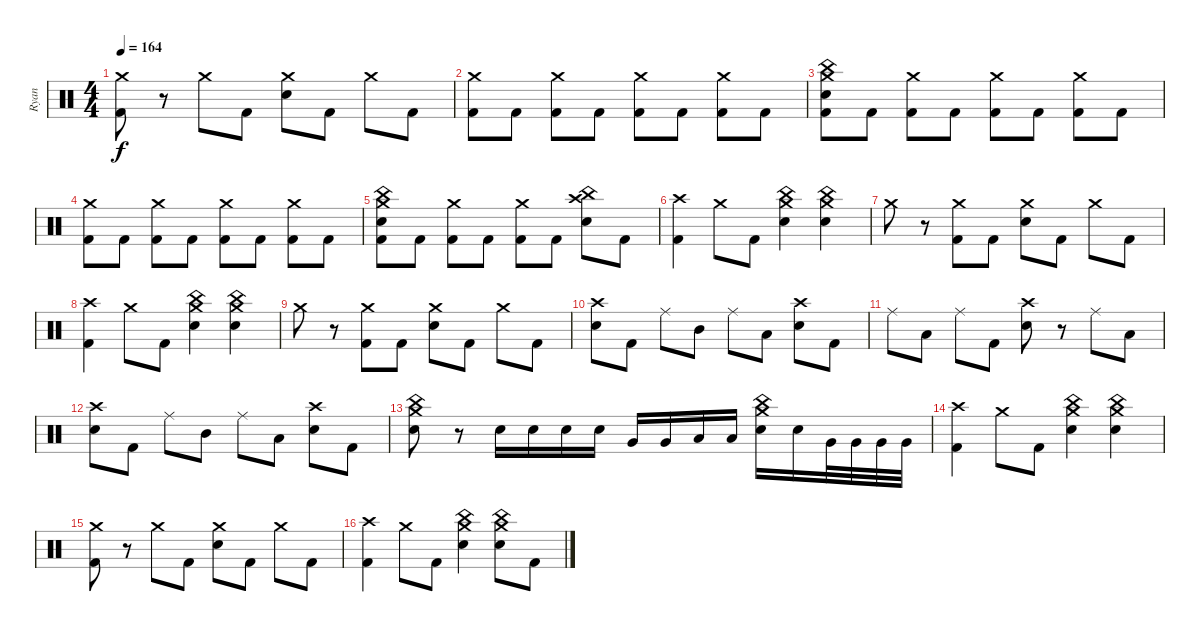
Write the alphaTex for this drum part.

\track ("Ryan" "Ryan") {instrument percussion}
\staff {score}
\articulation defaults
\ts (4 4)
\tempo 164
\clef neutral
\ks c
("Crash medium (hit)" "Kick (hit) 2").8{dy f} r.8 "Crash medium (hit)".8 "Kick (hit) 2".8 ("Crash medium (hit)" "Electric Snare (hit)").8 "Kick (hit) 2".8 "Crash medium (hit)".8 "Kick (hit) 2".8 |
("Crash medium (hit)" "Kick (hit) 2").8 "Kick (hit) 2".8 ("Crash medium (hit)" "Kick (hit) 2").8 "Kick (hit) 2".8 ("Crash medium (hit)" "Kick (hit) 2").8 "Kick (hit) 2".8 ("Crash medium (hit)" "Kick (hit) 2").8 "Kick (hit) 2".8 |
("Crash medium (hit)" "China (hit)" "Electric Snare (hit)" "Kick (hit) 2").8 "Kick (hit) 2".8 ("Crash medium (hit)" "Kick (hit) 2").8 "Kick (hit) 2".8 ("Crash medium (hit)" "Kick (hit) 2").8 "Kick (hit) 2".8 ("Crash medium (hit)" "Kick (hit) 2").8 "Kick (hit) 2".8 |
("Crash medium (hit)" "Kick (hit) 2").8 "Kick (hit) 2".8 ("Crash medium (hit)" "Kick (hit) 2").8 "Kick (hit) 2".8 ("Crash medium (hit)" "Kick (hit) 2").8 "Kick (hit) 2".8 ("Crash medium (hit)" "Kick (hit) 2").8 "Kick (hit) 2".8 |
("Crash medium (hit)" "China (hit)" "Electric Snare (hit)" "Kick (hit) 2").8 "Kick (hit) 2".8 ("Crash medium (hit)" "Kick (hit) 2").8 "Kick (hit) 2".8 ("Crash medium (hit)" "Kick (hit) 2").8 "Kick (hit) 2".8 ("Crash high (hit)" "China (hit)" "Electric Snare (hit)").8 "Kick (hit) 2".8 |
("Crash high (hit)" "Kick (hit) 2").4 "Crash medium (hit)".8 "Kick (hit) 2".8 ("Crash medium (hit)" "China (hit)" "Electric Snare (hit)").4 ("Crash medium (hit)" "China (hit)" "Electric Snare (hit)").4 |
"Crash medium (hit)".8 r.8 ("Crash medium (hit)" "Kick (hit) 2").8 "Kick (hit) 2".8 ("Crash medium (hit)" "Electric Snare (hit)").8 "Kick (hit) 2".8 "Crash medium (hit)".8 "Kick (hit) 2".8 |
("Crash high (hit)" "Kick (hit) 2").4 "Crash medium (hit)".8 "Kick (hit) 2".8 ("Crash medium (hit)" "China (hit)" "Electric Snare (hit)").4 ("Crash medium (hit)" "China (hit)" "Electric Snare (hit)").4 |
"Crash medium (hit)".8 r.8 ("Crash medium (hit)" "Kick (hit) 2").8 "Kick (hit) 2".8 ("Crash medium (hit)" "Electric Snare (hit)").8 "Kick (hit) 2".8 "Crash medium (hit)".8 "Kick (hit) 2".8 |
("Crash high (hit)" "Electric Snare (hit)").8 "Kick (hit) 2".8 "Ride (middle)".8 "Mid Tom (hit)".8 "Ride (middle)".8 "Low Tom (hit)".8 ("Crash high (hit)" "Electric Snare (hit)").8 "Kick (hit) 2".8 |
"Ride (middle)".8 "Low Tom (hit)".8 "Ride (middle)".8 "Kick (hit) 2".8 ("Crash high (hit)" "Electric Snare (hit)").8 r.8 "Ride (middle)".8 "Low Floor Tom (hit)".8 |
("Crash high (hit)" "Electric Snare (hit)").8 "Kick (hit) 2".8 "Ride (middle)".8 "Mid Tom (hit)".8 "Ride (middle)".8 "Low Tom (hit)".8 ("Crash high (hit)" "Electric Snare (hit)").8 "Kick (hit) 2".8 |
("China (hit)" "Crash medium (hit)" "Electric Snare (hit)").8 r.8 "Electric Snare (hit)".16 "Electric Snare (hit)".16 "Electric Snare (hit)".16 "Electric Snare (hit)".16 "Very Low Tom (hit)".16 "Very Low Tom (hit)".16 "Low Floor Tom (hit)".16 "Low Floor Tom (hit)".16 ("Crash medium (hit)" "China (hit)" "Electric Snare (hit)").16 "Electric Snare (hit)".16 "Very Low Tom (hit)".32 "Very Low Tom (hit)".32 "Very Low Tom (hit)".32 "Very Low Tom (hit)".32 |
("Crash high (hit)" "Kick (hit) 2").4 "Crash medium (hit)".8 "Kick (hit) 2".8 ("Crash medium (hit)" "China (hit)" "Electric Snare (hit)").4 ("Crash medium (hit)" "China (hit)" "Electric Snare (hit)").4 |
("Crash medium (hit)" "Kick (hit) 2").8 r.8 "Crash medium (hit)".8 "Kick (hit) 2".8 ("Crash medium (hit)" "Electric Snare (hit)").8 "Kick (hit) 2".8 "Crash medium (hit)".8 "Kick (hit) 2".8 |
("Crash high (hit)" "Kick (hit) 2").4 "Crash medium (hit)".8 "Kick (hit) 2".8 ("Crash medium (hit)" "China (hit)" "Electric Snare (hit)").4 ("Crash medium (hit)" "China (hit)" "Electric Snare (hit)").8 "Kick (hit) 2".8
